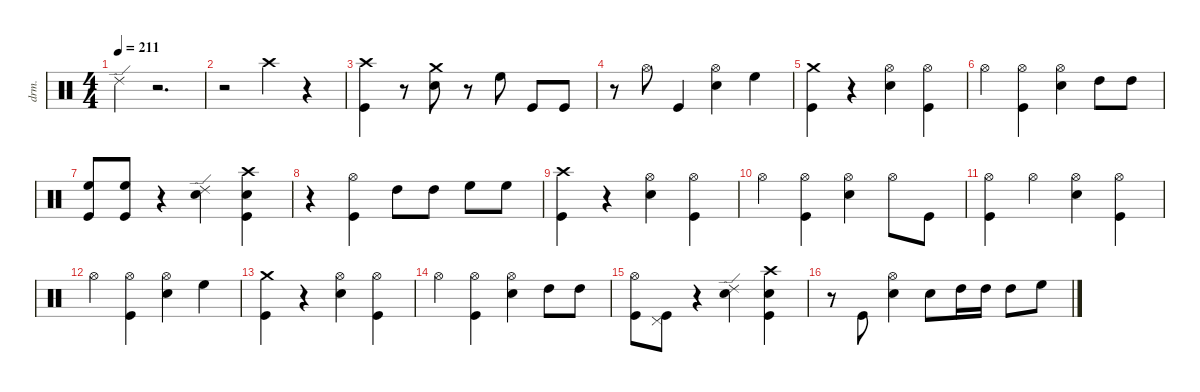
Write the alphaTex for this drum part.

\defaultSystemsLayout 4
\hideDynamics
\bracketExtendMode nobrackets
\otherSystemsTrackNameOrientation horizontal
\track ("Drums" "drm.") {instrument percussion}
\staff {score}
\articulation defaults
\ts (4 4)
\tempo 211
\clef neutral
\ks c "Ride (edge) 2".4{dy ff beam Down}
r.2{d beam Down} |
r.2{beam Down} "Crash high (hit)"{acc #}.4{dy fff beam Down} r.4{beam Down} |
("Kick (hit)" "Crash high (hit)"{acc #}).4{beam Down} r.8{beam Down} ("Snare (hit) 2" "Crash medium (hit)").8{dy ff beam Down} r.8{beam Down} "High Floor Tom (hit)".8{beam Down} "Kick (hit)".8{dy mf beam Up} "Kick (hit)".8{dy fff beam Up} |
r.8{beam Down} "Hi-Hat (open)"{acc #}.8{dy ff beam Down} "Kick (hit)".4{beam Up} ("Snare (hit) 2" "Hi-Hat (open)"{acc #}).4{beam Down} "High Floor Tom (hit)".4{beam Down} |
("Kick (hit)" "Crash medium (hit)").4{dy fff beam Down} r.4{beam Down} ("Snare (hit) 2" "Hi-Hat (open)"{acc #}).4{dy ff beam Down} ("Kick (hit)" "Hi-Hat (open)"{acc #}).4{beam Down} |
"Hi-Hat (open)"{acc #}.4{dy fff beam Down} ("Kick (hit)" "Hi-Hat (open)"{acc #}).4{dy ff beam Down} ("Snare (hit) 2" "Hi-Hat (open)"{acc #}).4{beam Down} "High Tom (hit)".8{beam Down} "High Tom (hit)".8{dy mf beam Down} |
("Kick (hit)" "High Floor Tom (hit)").8{dy ff beam Up} ("Kick (hit)" "High Floor Tom (hit)").8{dy fff beam Up} r.4{beam Up} ("Snare (hit) 2" "Ride (edge) 2").4{dy f beam Down} ("Kick (hit)" "Snare (hit) 2" "Crash high (hit)"{acc #}).4{dy ff beam Down} |
r.4{beam Down} ("Kick (hit)" "Hi-Hat (open)"{acc #}).4{dy fff beam Down} "High Tom (hit)".8{dy ff beam Down} "High Tom (hit)".8{dy mf beam Down} "High Floor Tom (hit)".8{dy f beam Down} "High Floor Tom (hit)".8{dy mf beam Down} |
("Kick (hit)" "Crash high (hit)"{acc #}).4{dy fff beam Down} r.4{beam Down} ("Snare (hit) 2" "Hi-Hat (open)"{acc #}).4{dy ff beam Down} ("Kick (hit)" "Hi-Hat (open)"{acc #}).4{beam Down} |
"Hi-Hat (open)"{acc #}.4{dy fff beam Down} ("Kick (hit)" "Hi-Hat (open)"{acc #}).4{dy ff beam Down} ("Snare (hit) 2" "Hi-Hat (open)"{acc #}).4{beam Down} "Hi-Hat (open)"{acc #}.8{dy mf beam Down} "Kick (hit)".8{beam Down} |
("Kick (hit)" "Hi-Hat (open)"{acc #}).4{dy fff beam Down} "Hi-Hat (open)"{acc #}.4{dy mf beam Down} ("Snare (hit) 2" "Hi-Hat (open)"{acc #}).4{dy ff beam Down} ("Kick (hit)" "Hi-Hat (open)"{acc #}).4{beam Down} |
"Hi-Hat (open)"{acc #}.4{dy fff beam Down} ("Kick (hit)" "Hi-Hat (open)"{acc #}).4{dy ff beam Down} ("Snare (hit) 2" "Hi-Hat (open)"{acc #}).4{beam Down} "High Floor Tom (hit)".4{beam Down} |
("Kick (hit)" "Crash medium (hit)").4{dy fff beam Down} r.4{beam Down} ("Snare (hit) 2" "Hi-Hat (open)"{acc #}).4{dy ff beam Down} ("Kick (hit)" "Hi-Hat (open)"{acc #}).4{beam Down} |
"Hi-Hat (open)"{acc #}.4{dy fff beam Down} ("Kick (hit)" "Hi-Hat (open)"{acc #}).4{dy ff beam Down} ("Snare (hit) 2" "Hi-Hat (open)"{acc #}).4{beam Down} "High Tom (hit)".8{beam Down} "High Tom (hit)".8{dy mf beam Down} |
("Kick (hit)" "Hi-Hat (open)"{acc #}).8{dy ff beam Down} ("Kick (hit)" "Pedal Hi-Hat (hit)"{acc #}).8{dy fff beam Down} r.4{beam Down} ("Snare (hit) 2" "Ride (edge) 2").4{dy f beam Down} ("Kick (hit)" "Snare (hit) 2" "Crash high (hit)"{acc #}).4{dy ff beam Down} |
r.8{beam Down} "Kick (hit)".8{dy mf beam Up} ("Snare (hit) 2" "Hi-Hat (open)"{acc #}).4{dy fff beam Down} "Snare (hit) 2".8{beam Down} "High Tom (hit)".16{dy ff beam Down} "High Tom (hit)".16{dy pp beam Down} "High Tom (hit)".8{dy f beam Down} "High Floor Tom (hit)".8{dy mp beam Down}
